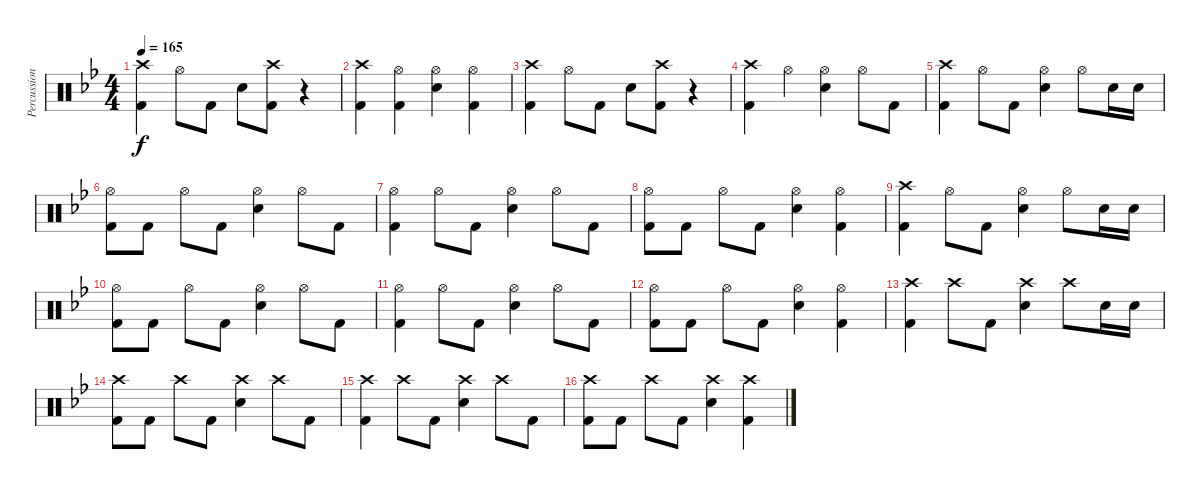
\track ("Percussion - Aaron" "Percussion") {instrument percussion}
\staff {score}
\articulation defaults
\ts (4 4)
\tempo 165
\clef neutral
\ks gminor
("Crash high (hit)" "Kick (hit) 2").4{dy f} "Hi-Hat (open)".8 "Kick (hit) 2".8 "Electric Snare (hit)".8 ("Crash high (hit)" "Kick (hit) 2").8 r.4 |
("Crash high (hit)" "Kick (hit) 2").4 ("Hi-Hat (open)" "Kick (hit) 2").4 ("Hi-Hat (open)" "Electric Snare (hit)").4 ("Hi-Hat (open)" "Kick (hit) 2").4 |
("Crash high (hit)" "Kick (hit) 2").4 "Hi-Hat (open)".8 "Kick (hit) 2".8 "Electric Snare (hit)".8 ("Crash high (hit)" "Kick (hit) 2").8 r.4 |
("Crash high (hit)" "Kick (hit) 2").4 "Hi-Hat (open)".4 ("Hi-Hat (open)" "Electric Snare (hit)").4 "Hi-Hat (open)".8 "Kick (hit) 2".8 |
("Crash high (hit)" "Kick (hit) 2").4 "Hi-Hat (open)".8 "Kick (hit) 2".8 ("Hi-Hat (open)" "Electric Snare (hit)").4 "Hi-Hat (open)".8 "Electric Snare (hit)".16 "Electric Snare (hit)".16 |
("Hi-Hat (open)" "Kick (hit) 2").8 "Kick (hit) 2".8 "Hi-Hat (open)".8 "Kick (hit) 2".8 ("Hi-Hat (open)" "Electric Snare (hit)").4 "Hi-Hat (open)".8 "Kick (hit) 2".8 |
("Hi-Hat (open)" "Kick (hit) 2").4 "Hi-Hat (open)".8 "Kick (hit) 2".8 ("Hi-Hat (open)" "Electric Snare (hit)").4 "Hi-Hat (open)".8 "Kick (hit) 2".8 |
("Hi-Hat (open)" "Kick (hit) 2").8 "Kick (hit) 2".8 "Hi-Hat (open)".8 "Kick (hit) 2".8 ("Hi-Hat (open)" "Electric Snare (hit)").4 ("Hi-Hat (open)" "Kick (hit) 2").4 |
("Crash high (hit)" "Kick (hit) 2").4 "Hi-Hat (open)".8 "Kick (hit) 2".8 ("Hi-Hat (open)" "Electric Snare (hit)").4 "Hi-Hat (open)".8 "Electric Snare (hit)".16 "Electric Snare (hit)".16 |
("Hi-Hat (open)" "Kick (hit) 2").8 "Kick (hit) 2".8 "Hi-Hat (open)".8 "Kick (hit) 2".8 ("Hi-Hat (open)" "Electric Snare (hit)").4 "Hi-Hat (open)".8 "Kick (hit) 2".8 |
("Hi-Hat (open)" "Kick (hit) 2").4 "Hi-Hat (open)".8 "Kick (hit) 2".8 ("Hi-Hat (open)" "Electric Snare (hit)").4 "Hi-Hat (open)".8 "Kick (hit) 2".8 |
("Hi-Hat (open)" "Kick (hit) 2").8 "Kick (hit) 2".8 "Hi-Hat (open)".8 "Kick (hit) 2".8 ("Hi-Hat (open)" "Electric Snare (hit)").4 ("Hi-Hat (open)" "Kick (hit) 2").4 |
("Crash high (hit)" "Kick (hit) 2").4 "Crash high (hit)".8 "Kick (hit) 2".8 ("Crash high (hit)" "Electric Snare (hit)").4 "Crash high (hit)".8 "Electric Snare (hit)".16 "Electric Snare (hit)".16 |
("Crash high (hit)" "Kick (hit) 2").8 "Kick (hit) 2".8 "Crash high (hit)".8 "Kick (hit) 2".8 ("Crash high (hit)" "Electric Snare (hit)").4 "Crash high (hit)".8 "Kick (hit) 2".8 |
("Crash high (hit)" "Kick (hit) 2").4 "Crash high (hit)".8 "Kick (hit) 2".8 ("Crash high (hit)" "Electric Snare (hit)").4 "Crash high (hit)".8 "Kick (hit) 2".8 |
("Crash high (hit)" "Kick (hit) 2").8 "Kick (hit) 2".8 "Crash high (hit)".8 "Kick (hit) 2".8 ("Crash high (hit)" "Electric Snare (hit)").4 ("Crash high (hit)" "Kick (hit) 2").4
